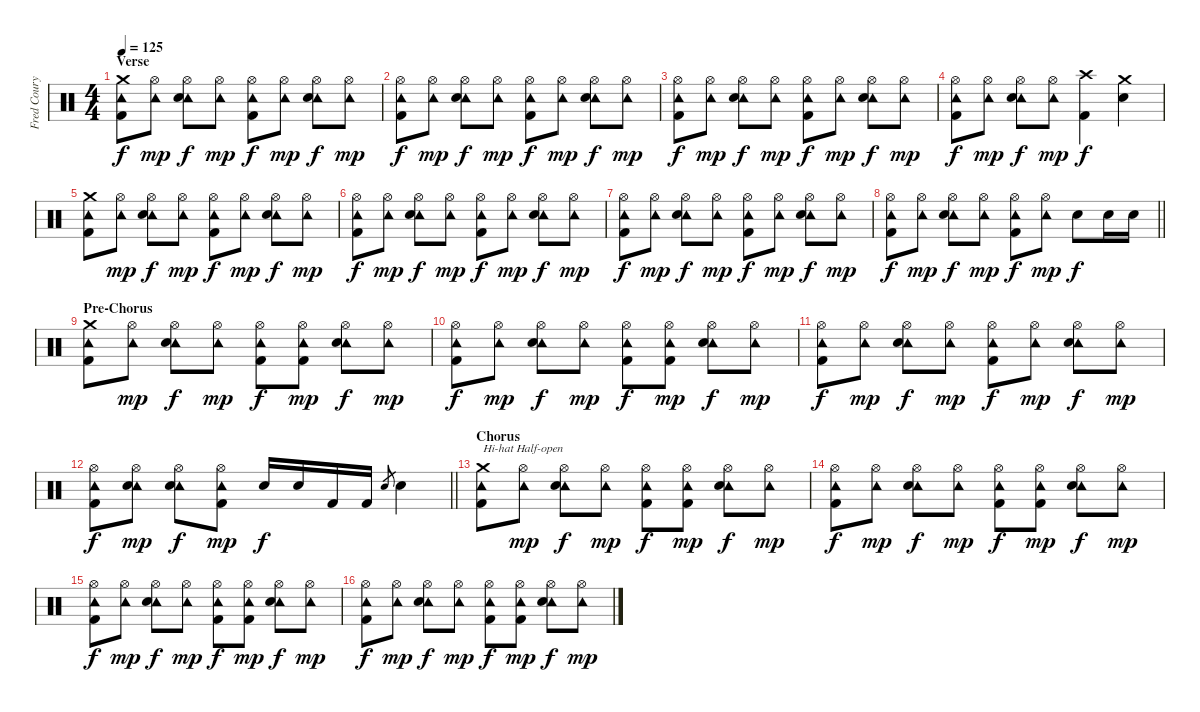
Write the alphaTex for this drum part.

\track ("Fred Coury - Drums" "Fred Coury") {instrument percussion}
\staff {score}
\articulation defaults
\ts (4 4)
\section ("" "Verse")
\tempo 125
\clef neutral
\ks c
("Crash medium (hit)" "Tambourine (hit)" "Kick (hit) 2").8{dy f} ("Hi-Hat (open)" "Tambourine (hit)").8{dy mp} ("Hi-Hat (open)" "Tambourine (hit)" "Snare (hit) 2").8{dy f} ("Hi-Hat (open)" "Tambourine (hit)").8{dy mp} ("Hi-Hat (open)" "Tambourine (hit)" "Kick (hit) 2").8{dy f} ("Hi-Hat (open)" "Tambourine (hit)").8{dy mp} ("Hi-Hat (open)" "Tambourine (hit)" "Snare (hit) 2").8{dy f} ("Hi-Hat (open)" "Tambourine (hit)").8{dy mp} |
("Hi-Hat (open)" "Tambourine (hit)" "Kick (hit) 2").8{dy f} ("Hi-Hat (open)" "Tambourine (hit)").8{dy mp} ("Hi-Hat (open)" "Tambourine (hit)" "Snare (hit) 2").8{dy f} ("Hi-Hat (open)" "Tambourine (hit)").8{dy mp} ("Hi-Hat (open)" "Tambourine (hit)" "Kick (hit) 2").8{dy f} ("Hi-Hat (open)" "Tambourine (hit)").8{dy mp} ("Hi-Hat (open)" "Tambourine (hit)" "Snare (hit) 2").8{dy f} ("Hi-Hat (open)" "Tambourine (hit)").8{dy mp} |
("Hi-Hat (open)" "Tambourine (hit)" "Kick (hit) 2").8{dy f} ("Hi-Hat (open)" "Tambourine (hit)").8{dy mp} ("Hi-Hat (open)" "Tambourine (hit)" "Snare (hit) 2").8{dy f} ("Hi-Hat (open)" "Tambourine (hit)").8{dy mp} ("Hi-Hat (open)" "Tambourine (hit)" "Kick (hit) 2").8{dy f} ("Hi-Hat (open)" "Tambourine (hit)").8{dy mp} ("Hi-Hat (open)" "Tambourine (hit)" "Snare (hit) 2").8{dy f} ("Hi-Hat (open)" "Tambourine (hit)").8{dy mp} |
("Hi-Hat (open)" "Tambourine (hit)" "Kick (hit) 2").8{dy f} ("Hi-Hat (open)" "Tambourine (hit)").8{dy mp} ("Hi-Hat (open)" "Tambourine (hit)" "Snare (hit) 2").8{dy f} ("Hi-Hat (open)" "Tambourine (hit)").8{dy mp} ("Crash high (hit)" "Kick (hit) 2").4{dy f} ("Crash medium (hit)" "Snare (hit) 2").4 |
("Crash medium (hit)" "Tambourine (hit)" "Kick (hit) 2").8 ("Hi-Hat (open)" "Tambourine (hit)").8{dy mp} ("Hi-Hat (open)" "Tambourine (hit)" "Snare (hit) 2").8{dy f} ("Hi-Hat (open)" "Tambourine (hit)").8{dy mp} ("Hi-Hat (open)" "Tambourine (hit)" "Kick (hit) 2").8{dy f} ("Hi-Hat (open)" "Tambourine (hit)").8{dy mp} ("Hi-Hat (open)" "Tambourine (hit)" "Snare (hit) 2").8{dy f} ("Hi-Hat (open)" "Tambourine (hit)").8{dy mp} |
("Hi-Hat (open)" "Tambourine (hit)" "Kick (hit) 2").8{dy f} ("Hi-Hat (open)" "Tambourine (hit)").8{dy mp} ("Hi-Hat (open)" "Tambourine (hit)" "Snare (hit) 2").8{dy f} ("Hi-Hat (open)" "Tambourine (hit)").8{dy mp} ("Hi-Hat (open)" "Tambourine (hit)" "Kick (hit) 2").8{dy f} ("Hi-Hat (open)" "Tambourine (hit)").8{dy mp} ("Hi-Hat (open)" "Tambourine (hit)" "Snare (hit) 2").8{dy f} ("Hi-Hat (open)" "Tambourine (hit)").8{dy mp} |
("Hi-Hat (open)" "Tambourine (hit)" "Kick (hit) 2").8{dy f} ("Hi-Hat (open)" "Tambourine (hit)").8{dy mp} ("Hi-Hat (open)" "Tambourine (hit)" "Snare (hit) 2").8{dy f} ("Hi-Hat (open)" "Tambourine (hit)").8{dy mp} ("Hi-Hat (open)" "Tambourine (hit)" "Kick (hit) 2").8{dy f} ("Hi-Hat (open)" "Tambourine (hit)").8{dy mp} ("Hi-Hat (open)" "Tambourine (hit)" "Snare (hit) 2").8{dy f} ("Hi-Hat (open)" "Tambourine (hit)").8{dy mp} |
\barLineRight lightlight
("Hi-Hat (open)" "Tambourine (hit)" "Kick (hit) 2").8{dy f} ("Hi-Hat (open)" "Tambourine (hit)").8{dy mp} ("Hi-Hat (open)" "Tambourine (hit)" "Snare (hit) 2").8{dy f} ("Hi-Hat (open)" "Tambourine (hit)").8{dy mp} ("Hi-Hat (open)" "Tambourine (hit)" "Kick (hit) 2").8{dy f} ("Hi-Hat (open)" "Tambourine (hit)").8{dy mp} "Snare (hit) 2".8{dy f} "Snare (hit) 2".16 "Snare (hit) 2".16 |
\section ("" "Pre-Chorus")
("Crash medium (hit)" "Tambourine (hit)" "Kick (hit) 2").8 ("Hi-Hat (open)" "Tambourine (hit)").8{dy mp} ("Hi-Hat (open)" "Tambourine (hit)" "Snare (hit) 2").8{dy f} ("Hi-Hat (open)" "Tambourine (hit)").8{dy mp} ("Hi-Hat (open)" "Tambourine (hit)" "Kick (hit) 2").8{dy f} ("Hi-Hat (open)" "Tambourine (hit)" "Kick (hit) 2").8{dy mp} ("Hi-Hat (open)" "Tambourine (hit)" "Snare (hit) 2").8{dy f} ("Hi-Hat (open)" "Tambourine (hit)").8{dy mp} |
("Hi-Hat (open)" "Tambourine (hit)" "Kick (hit) 2").8{dy f} ("Hi-Hat (open)" "Tambourine (hit)").8{dy mp} ("Hi-Hat (open)" "Tambourine (hit)" "Snare (hit) 2").8{dy f} ("Hi-Hat (open)" "Tambourine (hit)").8{dy mp} ("Hi-Hat (open)" "Tambourine (hit)" "Kick (hit) 2").8{dy f} ("Hi-Hat (open)" "Tambourine (hit)" "Kick (hit) 2").8{dy mp} ("Hi-Hat (open)" "Tambourine (hit)" "Snare (hit) 2").8{dy f} ("Hi-Hat (open)" "Tambourine (hit)").8{dy mp} |
("Hi-Hat (open)" "Tambourine (hit)" "Kick (hit) 2").8{dy f} ("Hi-Hat (open)" "Tambourine (hit)").8{dy mp} ("Hi-Hat (open)" "Tambourine (hit)" "Snare (hit) 2").8{dy f} ("Hi-Hat (open)" "Tambourine (hit)").8{dy mp} ("Hi-Hat (open)" "Tambourine (hit)" "Kick (hit) 2").8{dy f} ("Hi-Hat (open)" "Tambourine (hit)").8{dy mp} ("Hi-Hat (open)" "Tambourine (hit)" "Snare (hit) 2").8{dy f} ("Hi-Hat (open)" "Tambourine (hit)").8{dy mp} |
\barLineRight lightlight
("Hi-Hat (open)" "Tambourine (hit)" "Kick (hit) 2").8{dy f} ("Hi-Hat (open)" "Tambourine (hit)" "Snare (hit) 2").8{dy mp} ("Hi-Hat (open)" "Tambourine (hit)" "Snare (hit) 2").8{dy f} ("Hi-Hat (open)" "Tambourine (hit)" "Kick (hit) 2").8{dy mp} "Snare (hit) 2".16{dy f} "Snare (hit) 2".16 "Kick (hit) 2".16 "Kick (hit) 2".16 "Snare (hit) 2".8{gr} "Snare (hit) 2".4 |
\section ("" "Chorus")
("Crash medium (hit)" "Tambourine (hit)" "Kick (hit) 2").8{txt "Hi-hat Half-open"} ("Hi-Hat (open)" "Tambourine (hit)").8{dy mp} ("Hi-Hat (open)" "Tambourine (hit)" "Snare (hit) 2").8{dy f} ("Hi-Hat (open)" "Tambourine (hit)").8{dy mp} ("Hi-Hat (open)" "Tambourine (hit)" "Kick (hit) 2").8{dy f} ("Hi-Hat (open)" "Tambourine (hit)" "Kick (hit) 2").8{dy mp} ("Hi-Hat (open)" "Tambourine (hit)" "Snare (hit) 2").8{dy f} ("Hi-Hat (open)" "Tambourine (hit)").8{dy mp} |
("Hi-Hat (open)" "Tambourine (hit)" "Kick (hit) 2").8{dy f} ("Hi-Hat (open)" "Tambourine (hit)").8{dy mp} ("Hi-Hat (open)" "Tambourine (hit)" "Snare (hit) 2").8{dy f} ("Hi-Hat (open)" "Tambourine (hit)").8{dy mp} ("Hi-Hat (open)" "Tambourine (hit)" "Kick (hit) 2").8{dy f} ("Hi-Hat (open)" "Tambourine (hit)" "Kick (hit) 2").8{dy mp} ("Hi-Hat (open)" "Tambourine (hit)" "Snare (hit) 2").8{dy f} ("Hi-Hat (open)" "Tambourine (hit)").8{dy mp} |
("Hi-Hat (open)" "Tambourine (hit)" "Kick (hit) 2").8{dy f} ("Hi-Hat (open)" "Tambourine (hit)").8{dy mp} ("Hi-Hat (open)" "Tambourine (hit)" "Snare (hit) 2").8{dy f} ("Hi-Hat (open)" "Tambourine (hit)").8{dy mp} ("Hi-Hat (open)" "Tambourine (hit)" "Kick (hit) 2").8{dy f} ("Hi-Hat (open)" "Tambourine (hit)" "Kick (hit) 2").8{dy mp} ("Hi-Hat (open)" "Tambourine (hit)" "Snare (hit) 2").8{dy f} ("Hi-Hat (open)" "Tambourine (hit)").8{dy mp} |
("Hi-Hat (open)" "Tambourine (hit)" "Kick (hit) 2").8{dy f} ("Hi-Hat (open)" "Tambourine (hit)").8{dy mp} ("Hi-Hat (open)" "Tambourine (hit)" "Snare (hit) 2").8{dy f} ("Hi-Hat (open)" "Tambourine (hit)").8{dy mp} ("Hi-Hat (open)" "Tambourine (hit)" "Kick (hit) 2").8{dy f} ("Hi-Hat (open)" "Tambourine (hit)" "Kick (hit) 2").8{dy mp} ("Hi-Hat (open)" "Tambourine (hit)" "Snare (hit) 2").8{dy f} ("Hi-Hat (open)" "Tambourine (hit)").8{dy mp}
